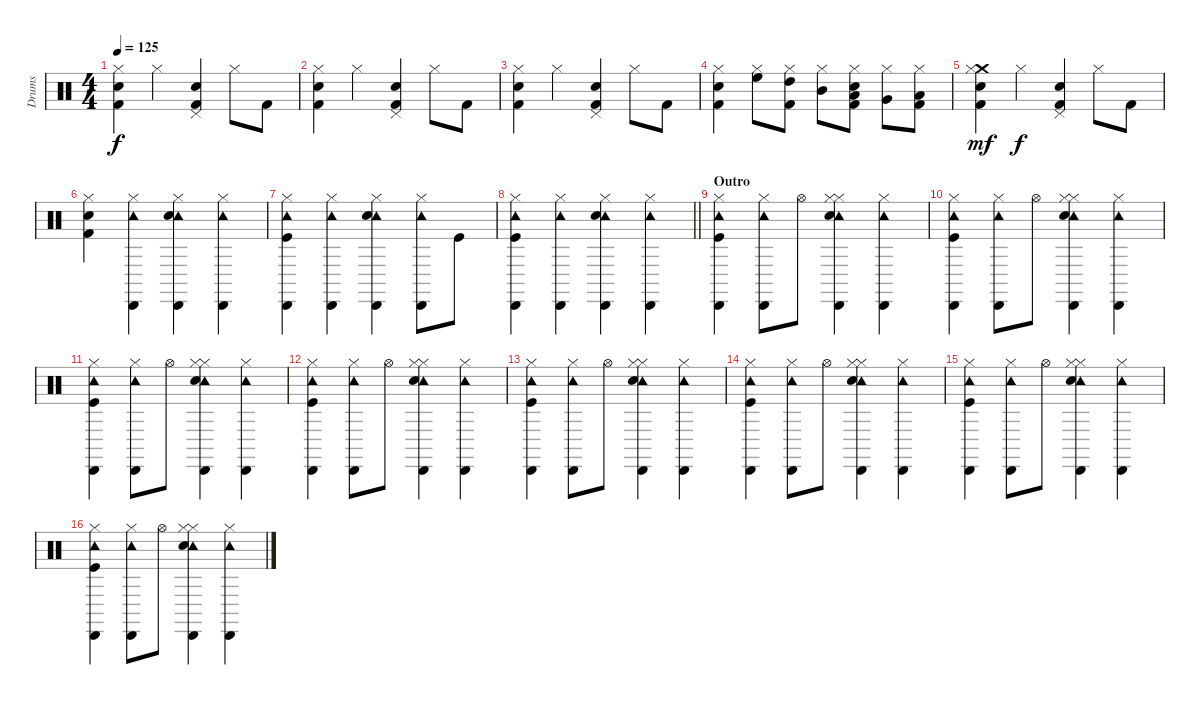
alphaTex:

\track ("Drums" "Drums") {instrument percussion}
\staff {score}
\articulation defaults
\ts (4 4)
\tempo 125
\clef neutral
\ks c
("Hi-Hat (closed)" "Snare (hit) 2" "Kick (hit) 2").4{dy f} "Hi-Hat (closed)".4 ("Pedal Hi-Hat (hit)" "Snare (hit) 2" "Kick (hit) 2").4 "Hi-Hat (closed)".8 "Kick (hit) 2".8 |
("Hi-Hat (closed)" "Snare (hit) 2" "Kick (hit) 2").4 "Hi-Hat (closed)".4 ("Pedal Hi-Hat (hit)" "Snare (hit) 2" "Kick (hit) 2").4 "Hi-Hat (closed)".8 "Kick (hit) 2".8 |
("Hi-Hat (closed)" "Snare (hit) 2" "Kick (hit) 2").4 "Hi-Hat (closed)".4 ("Pedal Hi-Hat (hit)" "Snare (hit) 2" "Kick (hit) 2").4 "Hi-Hat (closed)".8 "Kick (hit) 2".8 |
("Hi-Hat (closed)" "Snare (hit) 2" "Kick (hit) 2").4 ("Hi-Hat (closed)" "High Floor Tom (hit)").8 ("Hi-Hat (closed)" "High Tom (hit)" "Kick (hit) 2").8 ("Hi-Hat (closed)" "Mid Tom (hit)").8 ("Hi-Hat (closed)" "Snare (hit) 2" "Low Tom (hit)" "Kick (hit) 2").8 ("Hi-Hat (closed)" "Very Low Tom (hit)").8 ("Hi-Hat (closed)" "Low Floor Tom (hit)" "Kick (hit) 2").8 |
("Crash medium (hit)" "Hi-Hat (closed)" "Snare (hit) 2" "Kick (hit) 2").4{dy mf} "Hi-Hat (closed)".4{dy f} ("Pedal Hi-Hat (hit)" "Snare (hit) 2" "Kick (hit) 2").4 "Hi-Hat (closed)".8 "Kick (hit) 2".8 |
("Hi-Hat (closed)" "Snare (hit) 2" "Kick (hit) 2").4 ("Cabasa (hit)" "Tambourine (hit)" "Hi-Hat (closed)").4 ("Tambourine (hit)" "Cabasa (hit)" "Hi-Hat (closed)" "Snare (hit) 2").4 ("Cabasa (hit)" "Tambourine (hit)" "Hi-Hat (closed)").4 |
("Tambourine (hit)" "Cabasa (hit)" "Hi-Hat (closed)" "Kick (hit)").4 ("Tambourine (hit)" "Cabasa (hit)" "Hi-Hat (closed)").4 ("Cabasa (hit)" "Tambourine (hit)" "Hi-Hat (closed)" "Snare (hit) 2").4 ("Cabasa (hit)" "Tambourine (hit)" "Hi-Hat (closed)").8 "Kick (hit)".8 |
\barLineRight lightlight
("Cabasa (hit)" "Tambourine (hit)" "Hi-Hat (closed)" "Kick (hit)").4 ("Cabasa (hit)" "Tambourine (hit)" "Hi-Hat (closed)").4 ("Tambourine (hit)" "Cabasa (hit)" "Hi-Hat (closed)" "Snare (hit) 2").4 ("Cabasa (hit)" "Tambourine (hit)" "Hi-Hat (closed)").4 |
\section ("" "Outro")
("Cabasa (hit)" "Tambourine (hit)" "Hi-Hat (closed)" "Kick (hit)").4 ("Cabasa (hit)" "Tambourine (hit)" "Hi-Hat (closed)").8 "Hi-Hat (open)".8 ("Cabasa (hit)" "Tambourine (hit)" "Hi-Hat (closed)" "Hi-Hat (closed)" "Snare (hit) 2").4 ("Tambourine (hit)" "Cabasa (hit)" "Hi-Hat (closed)").4 |
("Cabasa (hit)" "Tambourine (hit)" "Hi-Hat (closed)" "Kick (hit)").4 ("Cabasa (hit)" "Tambourine (hit)" "Hi-Hat (closed)").8 "Hi-Hat (open)".8 ("Cabasa (hit)" "Tambourine (hit)" "Hi-Hat (closed)" "Hi-Hat (closed)" "Snare (hit) 2").4 ("Tambourine (hit)" "Cabasa (hit)" "Hi-Hat (closed)").4 |
("Cabasa (hit)" "Tambourine (hit)" "Hi-Hat (closed)" "Kick (hit)").4 ("Cabasa (hit)" "Tambourine (hit)" "Hi-Hat (closed)").8 "Hi-Hat (open)".8 ("Cabasa (hit)" "Tambourine (hit)" "Hi-Hat (closed)" "Hi-Hat (closed)" "Snare (hit) 2").4 ("Tambourine (hit)" "Cabasa (hit)" "Hi-Hat (closed)").4 |
("Cabasa (hit)" "Tambourine (hit)" "Hi-Hat (closed)" "Kick (hit)").4 ("Cabasa (hit)" "Tambourine (hit)" "Hi-Hat (closed)").8 "Hi-Hat (open)".8 ("Cabasa (hit)" "Tambourine (hit)" "Hi-Hat (closed)" "Hi-Hat (closed)" "Snare (hit) 2").4 ("Tambourine (hit)" "Cabasa (hit)" "Hi-Hat (closed)").4 |
("Cabasa (hit)" "Tambourine (hit)" "Hi-Hat (closed)" "Kick (hit)").4 ("Cabasa (hit)" "Tambourine (hit)" "Hi-Hat (closed)").8 "Hi-Hat (open)".8 ("Cabasa (hit)" "Tambourine (hit)" "Hi-Hat (closed)" "Hi-Hat (closed)" "Snare (hit) 2").4 ("Tambourine (hit)" "Cabasa (hit)" "Hi-Hat (closed)").4 |
("Cabasa (hit)" "Tambourine (hit)" "Hi-Hat (closed)" "Kick (hit)").4 ("Cabasa (hit)" "Tambourine (hit)" "Hi-Hat (closed)").8 "Hi-Hat (open)".8 ("Cabasa (hit)" "Tambourine (hit)" "Hi-Hat (closed)" "Hi-Hat (closed)" "Snare (hit) 2").4 ("Tambourine (hit)" "Cabasa (hit)" "Hi-Hat (closed)").4 |
("Cabasa (hit)" "Tambourine (hit)" "Hi-Hat (closed)" "Kick (hit)").4 ("Cabasa (hit)" "Tambourine (hit)" "Hi-Hat (closed)").8 "Hi-Hat (open)".8 ("Cabasa (hit)" "Tambourine (hit)" "Hi-Hat (closed)" "Hi-Hat (closed)" "Snare (hit) 2").4 ("Tambourine (hit)" "Cabasa (hit)" "Hi-Hat (closed)").4 |
("Cabasa (hit)" "Tambourine (hit)" "Hi-Hat (closed)" "Kick (hit)").4 ("Cabasa (hit)" "Tambourine (hit)" "Hi-Hat (closed)").8 "Hi-Hat (open)".8 ("Cabasa (hit)" "Tambourine (hit)" "Hi-Hat (closed)" "Hi-Hat (closed)" "Snare (hit) 2").4 ("Tambourine (hit)" "Cabasa (hit)" "Hi-Hat (closed)").4
